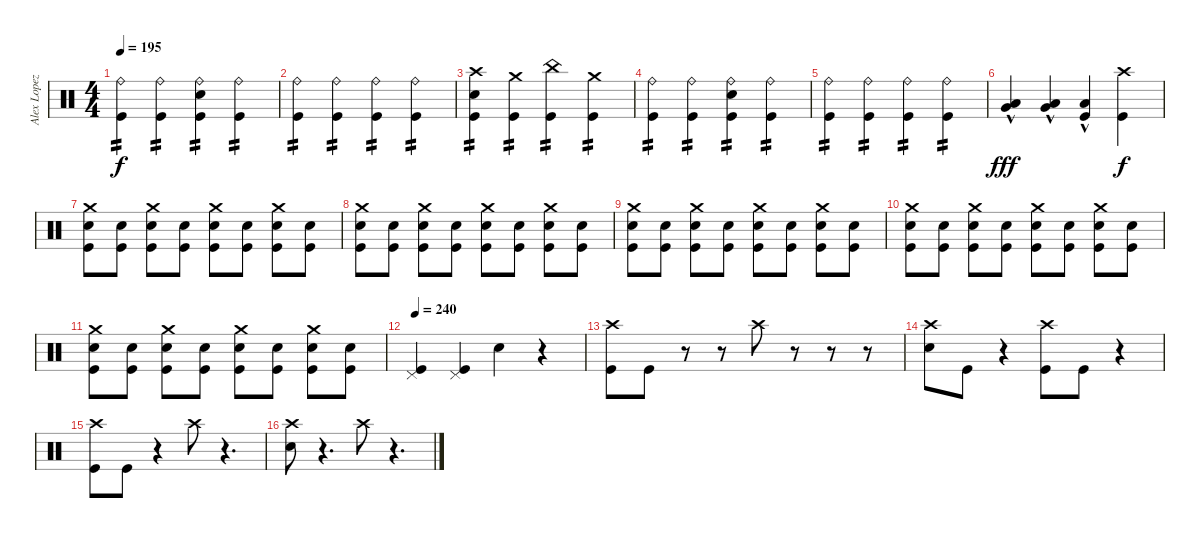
\track ("Alex Lopez" "Alex Lopez") {instrument percussion}
\staff {score}
\articulation defaults
\ts (4 4)
\tempo 195
\clef neutral
\ks c
("Ride (bell)" "Kick (hit)").4{tp 2 dy f} ("Ride (bell)" "Kick (hit)").4{tp 2} ("Ride (bell)" "Electric Snare (hit)" "Kick (hit)").4{tp 2} ("Ride (bell)" "Kick (hit)").4{tp 2} |
("Ride (bell)" "Kick (hit)").4{tp 2} ("Ride (bell)" "Kick (hit)").4{tp 2} ("Ride (bell)" "Kick (hit)").4{tp 2} ("Ride (bell)" "Kick (hit)").4{tp 2} |
("Crash high (hit)" "Electric Snare (hit)" "Kick (hit)").4{tp 2} ("Crash medium (hit)" "Kick (hit)").4{tp 2} ("China (hit)" "Kick (hit)").4{tp 2} ("Crash medium (hit)" "Kick (hit)").4{tp 2} |
("Ride (bell)" "Kick (hit)").4{tp 2} ("Ride (bell)" "Kick (hit)").4{tp 2} ("Ride (bell)" "Electric Snare (hit)" "Kick (hit)").4{tp 2} ("Ride (bell)" "Kick (hit)").4{tp 2} |
("Ride (bell)" "Kick (hit)").4{tp 2} ("Ride (bell)" "Kick (hit)").4{tp 2} ("Ride (bell)" "Kick (hit)").4{tp 2} ("Ride (bell)" "Kick (hit)").4{tp 2} |
("Low Tom (hit)"{hac} "Very Low Tom (hit)"{hac}).4{dy fff} ("Very Low Tom (hit)"{hac} "Low Floor Tom (hit)"{hac}).4 ("Low Floor Tom (hit)"{hac} "Kick (hit)").4 ("Crash high (hit)" "Kick (hit)").4{dy f} |
("Crash medium (hit)" "Electric Snare (hit)" "Kick (hit)").8 ("Electric Snare (hit)" "Kick (hit)").8 ("Crash medium (hit)" "Electric Snare (hit)" "Kick (hit)").8 ("Electric Snare (hit)" "Kick (hit)").8 ("Crash medium (hit)" "Electric Snare (hit)" "Kick (hit)").8 ("Electric Snare (hit)" "Kick (hit)").8 ("Crash medium (hit)" "Electric Snare (hit)" "Kick (hit)").8 ("Electric Snare (hit)" "Kick (hit)").8 |
("Crash medium (hit)" "Electric Snare (hit)" "Kick (hit)").8 ("Electric Snare (hit)" "Kick (hit)").8 ("Crash medium (hit)" "Electric Snare (hit)" "Kick (hit)").8 ("Electric Snare (hit)" "Kick (hit)").8 ("Crash medium (hit)" "Electric Snare (hit)" "Kick (hit)").8 ("Electric Snare (hit)" "Kick (hit)").8 ("Crash medium (hit)" "Electric Snare (hit)" "Kick (hit)").8 ("Electric Snare (hit)" "Kick (hit)").8 |
("Crash medium (hit)" "Electric Snare (hit)" "Kick (hit)").8 ("Electric Snare (hit)" "Kick (hit)").8 ("Crash medium (hit)" "Electric Snare (hit)" "Kick (hit)").8 ("Electric Snare (hit)" "Kick (hit)").8 ("Crash medium (hit)" "Electric Snare (hit)" "Kick (hit)").8 ("Electric Snare (hit)" "Kick (hit)").8 ("Crash medium (hit)" "Electric Snare (hit)" "Kick (hit)").8 ("Electric Snare (hit)" "Kick (hit)").8 |
("Crash medium (hit)" "Electric Snare (hit)" "Kick (hit)").8 ("Electric Snare (hit)" "Kick (hit)").8 ("Crash medium (hit)" "Electric Snare (hit)" "Kick (hit)").8 ("Electric Snare (hit)" "Kick (hit)").8 ("Crash medium (hit)" "Electric Snare (hit)" "Kick (hit)").8 ("Electric Snare (hit)" "Kick (hit)").8 ("Crash medium (hit)" "Electric Snare (hit)" "Kick (hit)").8 ("Electric Snare (hit)" "Kick (hit)").8 |
("Crash medium (hit)" "Electric Snare (hit)" "Kick (hit)").8 ("Electric Snare (hit)" "Kick (hit)").8 ("Crash medium (hit)" "Electric Snare (hit)" "Kick (hit)").8 ("Electric Snare (hit)" "Kick (hit)").8 ("Crash medium (hit)" "Electric Snare (hit)" "Kick (hit)").8 ("Electric Snare (hit)" "Kick (hit)").8 ("Crash medium (hit)" "Electric Snare (hit)" "Kick (hit)").8 ("Electric Snare (hit)" "Kick (hit)").8 |
\tempo 240
("Pedal Hi-Hat (hit)" "Kick (hit)").4 ("Pedal Hi-Hat (hit)" "Kick (hit)").4 "Electric Snare (hit)".4 r.4 |
("Crash high (hit)" "Kick (hit)").8 "Kick (hit)".8 r.8 r.8 "Crash high (hit)".8 r.8 r.8 r.8 |
("Crash high (hit)" "Electric Snare (hit)").8 "Kick (hit)".8 r.4 ("Crash high (hit)" "Kick (hit)").8 "Kick (hit)".8 r.4 |
("Crash high (hit)" "Kick (hit)").8 "Kick (hit)".8 r.4 "Crash high (hit)".8 r.4{d} |
("Crash high (hit)" "Electric Snare (hit)").8 r.4{d} "Crash high (hit)".8 r.4{d}
